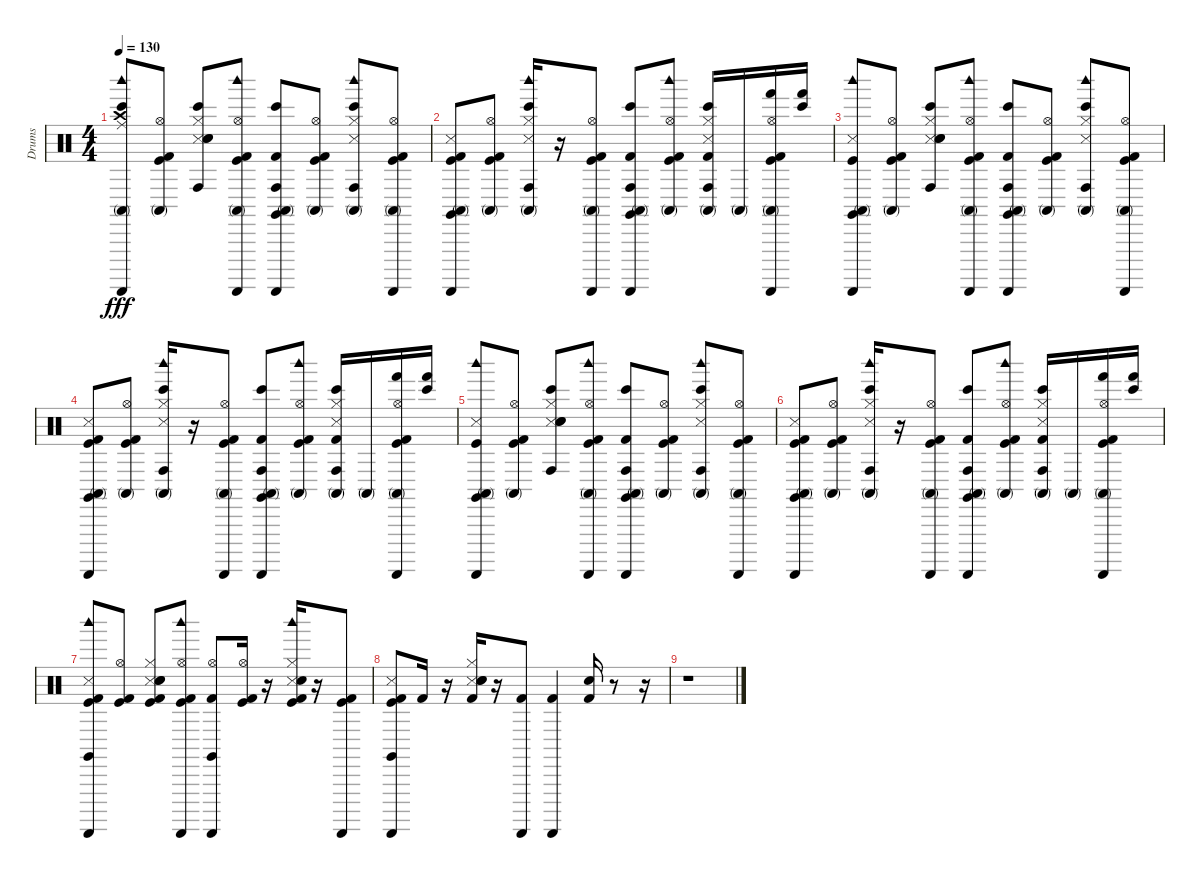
\track ("Drums" "Drums") {instrument percussion}
\staff {score}
\articulation defaults
\ts (4 4)
\tempo 130
\clef neutral
\ks c
("Guiro (scrap-return)" "Woodblock high (hit)" "Bongo High (hit)" "Conga high (mute)" "Crash high (hit)" "Ride (middle)").8{dy fff} ("Conga high (mute)" "Hi-Hat (open)" "Kick (hit)" "Kick (hit) 2").8 ("Bongo High (hit)" "Conga high (hit)" "Snare (side stick) 3" "Hi-Hat (closed)" "Electric Snare (hit)" "Snare (hit) 2").8 ("Kick (hit) 2" "Kick (hit)" "Guiro (scrap-return)" "Woodblock high (hit)" "Conga high (mute)" "Hi-Hat (open)").8 ("Kick (hit) 2" "Guiro (scrap-return)" "Claves (hit)" "Bongo High (hit)" "Conga high (mute)" "Conga high (hit)").8 ("Conga high (mute)" "Hi-Hat (open)" "Kick (hit) 2" "Kick (hit)").8 ("Woodblock high (hit)" "Bongo High (hit)" "Conga high (mute)" "Conga high (hit)" "Snare (side stick) 3" "Hi-Hat (closed)").8 ("Kick (hit) 2" "Kick (hit)" "Guiro (scrap-return)" "Conga high (mute)" "Hi-Hat (open)").8 |
("Guiro (scrap-return)" "Claves (hit)" "Conga high (mute)" "Snare (side stick) 3" "Kick (hit)" "Kick (hit) 2").8 ("Conga high (mute)" "Hi-Hat (open)" "Kick (hit)" "Kick (hit) 2").8 ("Woodblock high (hit)" "Conga high (mute)" "Conga high (hit)" "Bongo High (hit)" "Snare (side stick) 3" "Hi-Hat (closed)").16 r.16 ("Guiro (scrap-return)" "Conga high (mute)" "Kick (hit) 2" "Kick (hit)" "Hi-Hat (open)").8 ("Guiro (scrap-return)" "Claves (hit)" "Conga high (mute)" "Conga high (hit)" "Kick (hit) 2" "Bongo High (hit)").8 ("Woodblock high (hit)" "Conga high (mute)" "Hi-Hat (open)" "Kick (hit) 2" "Kick (hit)").8 ("Conga high (mute)" "Conga high (hit)" "Bongo High (hit)" "Snare (side stick) 3" "Hi-Hat (closed)" "Kick (hit) 2").16 "Conga high (mute)".16 ("Guiro (scrap-return)" "Hand (hit)" "Conga high (mute)" "Kick (hit) 2" "Kick (hit)" "Hi-Hat (open)").16 ("Bongo High (hit)" "Hand (hit)").16 |
("Guiro (scrap-return)" "Woodblock high (hit)" "Claves (hit)" "Conga high (mute)" "Snare (side stick) 3" "Kick (hit)").8 ("Conga high (mute)" "Hi-Hat (open)" "Kick (hit)" "Kick (hit) 2").8 ("Conga high (hit)" "Bongo High (hit)" "Snare (side stick) 3" "Hi-Hat (closed)" "Electric Snare (hit)" "Snare (hit) 2").8 ("Guiro (scrap-return)" "Woodblock high (hit)" "Conga high (mute)" "Kick (hit) 2" "Kick (hit)" "Hi-Hat (open)").8 ("Guiro (scrap-return)" "Claves (hit)" "Conga high (mute)" "Conga high (hit)" "Kick (hit) 2" "Bongo High (hit)").8 ("Conga high (mute)" "Hi-Hat (open)" "Kick (hit) 2" "Kick (hit)").8 ("Woodblock high (hit)" "Conga high (mute)" "Conga high (hit)" "Bongo High (hit)" "Snare (side stick) 3" "Hi-Hat (closed)").8 ("Guiro (scrap-return)" "Conga high (mute)" "Kick (hit) 2" "Kick (hit)" "Hi-Hat (open)").8 |
("Guiro (scrap-return)" "Claves (hit)" "Conga high (mute)" "Snare (side stick) 3" "Kick (hit)" "Kick (hit) 2").8 ("Conga high (mute)" "Hi-Hat (open)" "Kick (hit)" "Kick (hit) 2").8 ("Woodblock high (hit)" "Conga high (mute)" "Conga high (hit)" "Bongo High (hit)" "Snare (side stick) 3" "Hi-Hat (closed)").16 r.16 ("Guiro (scrap-return)" "Conga high (mute)" "Kick (hit) 2" "Kick (hit)" "Hi-Hat (open)").8 ("Guiro (scrap-return)" "Claves (hit)" "Conga high (mute)" "Conga high (hit)" "Kick (hit) 2" "Bongo High (hit)").8 ("Woodblock high (hit)" "Conga high (mute)" "Hi-Hat (open)" "Kick (hit) 2" "Kick (hit)").8 ("Conga high (mute)" "Conga high (hit)" "Bongo High (hit)" "Snare (side stick) 3" "Hi-Hat (closed)" "Kick (hit) 2").16 "Conga high (mute)".16 ("Guiro (scrap-return)" "Hand (hit)" "Conga high (mute)" "Kick (hit) 2" "Kick (hit)" "Hi-Hat (open)").16 ("Bongo High (hit)" "Hand (hit)").16 |
("Guiro (scrap-return)" "Woodblock high (hit)" "Claves (hit)" "Conga high (mute)" "Snare (side stick) 3" "Kick (hit)").8 ("Conga high (mute)" "Hi-Hat (open)" "Kick (hit)" "Kick (hit) 2").8 ("Conga high (hit)" "Bongo High (hit)" "Snare (side stick) 3" "Hi-Hat (closed)" "Electric Snare (hit)" "Snare (hit) 2").8 ("Guiro (scrap-return)" "Woodblock high (hit)" "Conga high (mute)" "Kick (hit) 2" "Kick (hit)" "Hi-Hat (open)").8 ("Guiro (scrap-return)" "Claves (hit)" "Conga high (mute)" "Conga high (hit)" "Kick (hit) 2" "Bongo High (hit)").8 ("Conga high (mute)" "Hi-Hat (open)" "Kick (hit) 2" "Kick (hit)").8 ("Woodblock high (hit)" "Conga high (mute)" "Conga high (hit)" "Bongo High (hit)" "Snare (side stick) 3" "Hi-Hat (closed)").8 ("Guiro (scrap-return)" "Conga high (mute)" "Kick (hit) 2" "Kick (hit)" "Hi-Hat (open)").8 |
("Guiro (scrap-return)" "Claves (hit)" "Conga high (mute)" "Snare (side stick) 3" "Kick (hit)" "Kick (hit) 2").8 ("Conga high (mute)" "Hi-Hat (open)" "Kick (hit)" "Kick (hit) 2").8 ("Woodblock high (hit)" "Conga high (mute)" "Conga high (hit)" "Bongo High (hit)" "Snare (side stick) 3" "Hi-Hat (closed)").16 r.16 ("Guiro (scrap-return)" "Conga high (mute)" "Kick (hit) 2" "Kick (hit)" "Hi-Hat (open)").8 ("Guiro (scrap-return)" "Claves (hit)" "Conga high (mute)" "Conga high (hit)" "Kick (hit) 2" "Bongo High (hit)").8 ("Woodblock high (hit)" "Conga high (mute)" "Hi-Hat (open)" "Kick (hit) 2" "Kick (hit)").8 ("Conga high (mute)" "Conga high (hit)" "Bongo High (hit)" "Snare (side stick) 3" "Hi-Hat (closed)" "Kick (hit) 2").16 "Conga high (mute)".16 ("Guiro (scrap-return)" "Hand (hit)" "Conga high (mute)" "Kick (hit) 2" "Kick (hit)" "Hi-Hat (open)").16 ("Bongo High (hit)" "Hand (hit)").16 |
("Guiro (scrap-return)" "Woodblock high (hit)" "Claves (hit)" "Snare (side stick) 3" "Kick (hit)" "Kick (hit) 2").8 ("Hi-Hat (open)" "Kick (hit)" "Kick (hit) 2").8 ("Snare (side stick) 3" "Hi-Hat (closed)" "Electric Snare (hit)" "Snare (hit) 2" "Kick (hit)" "Kick (hit) 2").8 ("Guiro (scrap-return)" "Woodblock high (hit)" "Kick (hit) 2" "Kick (hit)" "Hi-Hat (open)").8 ("Guiro (scrap-return)" "Claves (hit)" "Kick (hit) 2" "Hi-Hat (open)").8 ("Hi-Hat (open)" "Kick (hit) 2" "Kick (hit)").16 r.16 ("Woodblock high (hit)" "Snare (side stick) 3" "Hi-Hat (closed)" "Kick (hit) 2" "Electric Snare (hit)" "Kick (hit)").16 r.16 ("Guiro (scrap-return)" "Kick (hit) 2" "Kick (hit)").8 |
("Guiro (scrap-return)" "Claves (hit)" "Snare (side stick) 3" "Kick (hit)" "Kick (hit) 2").8 "Kick (hit) 2".16 r.16 ("Snare (side stick) 3" "Hi-Hat (closed)" "Electric Snare (hit)" "Snare (hit) 2" "Kick (hit) 2").16 r.16 ("Guiro (scrap-return)" "Kick (hit) 2").8 ("Guiro (scrap-return)" "Kick (hit) 2").4 ("Kick (hit) 2" "Snare (hit) 2").16 r.8 r.16 |
r.1
